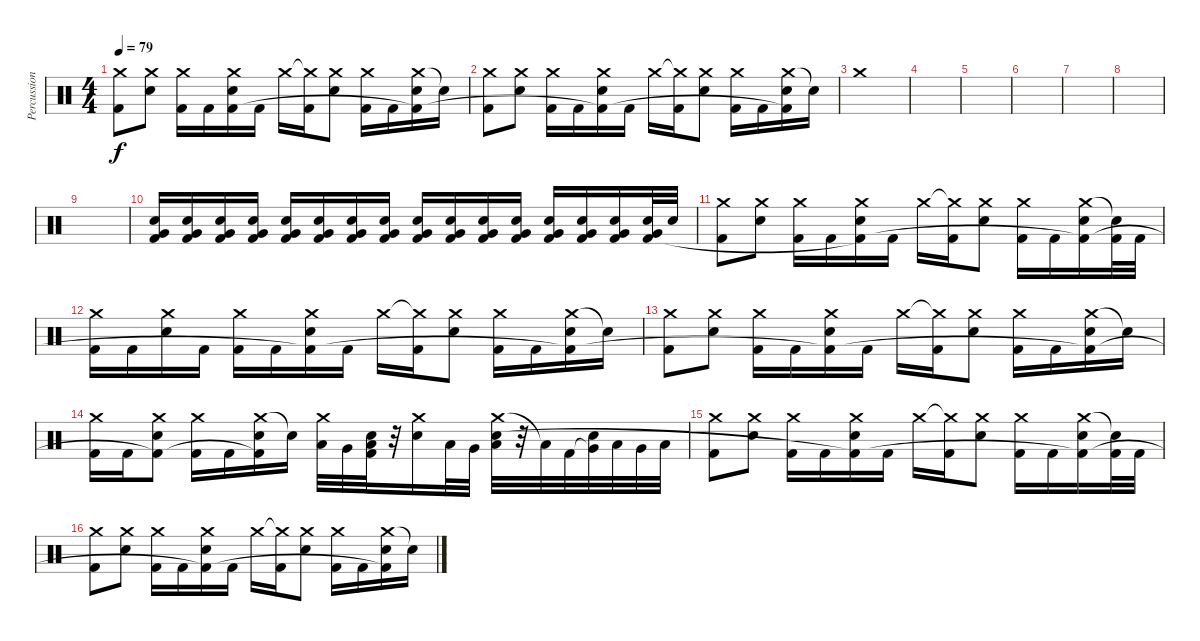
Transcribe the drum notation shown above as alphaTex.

\track ("Percussion" "Percussion") {instrument percussion}
\staff {score}
\articulation defaults
\ts (4 4)
\tempo 79
\clef neutral
\ks c
("Crash medium (hit)" "Kick (hit) 2").8{dy f} ("Crash medium (hit)" "Snare (hit) 2").8 ("Crash medium (hit)" "Kick (hit) 2").16 "Kick (hit) 2".16 ("Crash medium (hit)" "Snare (hit) 2" "Kick (hit) 2"{t}).16 "Kick (hit) 2".16 "Crash medium (hit)".16 ("Crash medium (hit)"{t} "Kick (hit) 2").16 ("Crash medium (hit)" "Snare (hit) 2").8 ("Crash medium (hit)" "Kick (hit) 2").16 "Kick (hit) 2".16 ("Crash medium (hit)" "Snare (hit) 2" "Kick (hit) 2"{t}).16 "Snare (hit)"{t}.16 |
("Crash medium (hit)" "Kick (hit) 2").8 ("Crash medium (hit)" "Snare (hit) 2").8 ("Crash medium (hit)" "Kick (hit) 2").16 "Kick (hit) 2".16 ("Crash medium (hit)" "Snare (hit) 2" "Kick (hit) 2"{t}).16 "Kick (hit) 2".16 "Crash medium (hit)".16 ("Crash medium (hit)"{t} "Kick (hit) 2").16 ("Crash medium (hit)" "Snare (hit) 2").8 ("Crash medium (hit)" "Kick (hit) 2").16 "Kick (hit) 2".16 ("Crash medium (hit)" "Snare (hit) 2" "Kick (hit) 2"{t}).16 "Snare (hit)"{t}.16 |
"Crash medium (hit)".1 |
|
|
|
|
|
|
("Very Low Tom (hit)" "Snare (hit) 2" "Kick (hit) 2").16 ("Very Low Tom (hit)" "Snare (hit) 2" "Kick (hit) 2").16 ("Very Low Tom (hit)" "Snare (hit) 2" "Kick (hit) 2").16 ("Very Low Tom (hit)" "Snare (hit) 2" "Kick (hit) 2").16 ("Very Low Tom (hit)" "Snare (hit) 2" "Kick (hit) 2").16 ("Very Low Tom (hit)" "Snare (hit) 2" "Kick (hit) 2").16 ("Very Low Tom (hit)" "Snare (hit) 2" "Kick (hit) 2").16 ("Very Low Tom (hit)" "Snare (hit) 2" "Kick (hit) 2").16 ("Very Low Tom (hit)" "Snare (hit) 2" "Kick (hit) 2").16 ("Very Low Tom (hit)" "Snare (hit) 2" "Kick (hit) 2").16 ("Very Low Tom (hit)" "Snare (hit) 2" "Kick (hit) 2").16 ("Very Low Tom (hit)" "Snare (hit) 2" "Kick (hit) 2").16 ("Very Low Tom (hit)" "Snare (hit) 2" "Kick (hit) 2").16 ("Very Low Tom (hit)" "Snare (hit) 2" "Kick (hit) 2").16 ("Very Low Tom (hit)" "Snare (hit) 2" "Kick (hit) 2").16 ("Very Low Tom (hit)" "Snare (hit) 2" "Kick (hit) 2").32 "Snare (hit) 2".32 |
("Crash medium (hit)" "Kick (hit) 2").8 ("Crash medium (hit)" "Snare (hit) 2").8 ("Crash medium (hit)" "Kick (hit) 2").16 "Kick (hit) 2".16 ("Crash medium (hit)" "Snare (hit) 2" "Kick (hit) 2"{t}).16 "Kick (hit) 2".16 "Crash medium (hit)".16 ("Crash medium (hit)"{t} "Kick (hit) 2").16 ("Crash medium (hit)" "Snare (hit) 2").8 ("Crash medium (hit)" "Kick (hit) 2").16 "Kick (hit) 2".16 ("Crash medium (hit)" "Snare (hit) 2" "Kick (hit) 2"{t}).16 ("Snare (hit)"{t} "Kick (hit) 2").32 "Kick (hit) 2".32 |
("Crash medium (hit)" "Kick (hit) 2").16 "Kick (hit) 2".16 ("Crash medium (hit)" "Snare (hit) 2").16 "Kick (hit) 2".16 ("Crash medium (hit)" "Kick (hit) 2").16 "Kick (hit) 2".16 ("Crash medium (hit)" "Snare (hit) 2" "Kick (hit) 2"{t}).16 "Kick (hit) 2".16 "Crash medium (hit)".16 ("Crash medium (hit)"{t} "Kick (hit) 2").16 ("Crash medium (hit)" "Snare (hit) 2").8 ("Crash medium (hit)" "Kick (hit) 2").16 "Kick (hit) 2".16 ("Crash medium (hit)" "Snare (hit) 2" "Kick (hit) 2"{t}).16 "Snare (hit)"{t}.16 |
("Crash medium (hit)" "Kick (hit) 2").8 ("Crash medium (hit)" "Snare (hit) 2").8 ("Crash medium (hit)" "Kick (hit) 2").16 "Kick (hit) 2".16 ("Crash medium (hit)" "Snare (hit) 2" "Kick (hit) 2"{t}).16 "Kick (hit) 2".16 "Crash medium (hit)".16 ("Crash medium (hit)"{t} "Kick (hit) 2").16 ("Crash medium (hit)" "Snare (hit) 2").8 ("Crash medium (hit)" "Kick (hit) 2").16 "Kick (hit) 2".16 ("Crash medium (hit)" "Snare (hit) 2" "Kick (hit) 2"{t}).16 "Snare (hit)"{t}.16 |
("Crash medium (hit)" "Kick (hit) 2").16 "Kick (hit) 2".16 ("Crash medium (hit)" "Snare (hit) 2" "Kick (hit) 2"{t}).8 ("Crash medium (hit)" "Kick (hit) 2").16 "Kick (hit) 2".16 ("Crash medium (hit)" "Snare (hit) 2" "Kick (hit) 2"{t}).16 "Snare (hit)"{t}.16 ("Crash medium (hit)" "Low Tom (hit)").32 "Very Low Tom (hit)".32 ("Low Floor Tom (hit)" "Snare (hit) 2" "Kick (hit) 2").32 r.32 ("Crash medium (hit)" "Snare (hit) 2").16 "Low Tom (hit)".32 "Very Low Tom (hit)".32 ("Crash medium (hit)" "Low Tom (hit)" "Snare (hit) 2").32 r.32 "Low Floor Tom (hit)"{t}.32 "Kick (hit) 2".32 ("Very Low Tom (hit)"{t} "Snare (hit) 2").32 "Low Tom (hit)".32 "Very Low Tom (hit)".32 "Low Floor Tom (hit)".32 |
("Crash medium (hit)" "Kick (hit) 2").8 ("Crash medium (hit)" "Snare (hit) 2").8 ("Crash medium (hit)" "Kick (hit) 2").16 "Kick (hit) 2".16 ("Crash medium (hit)" "Snare (hit) 2" "Kick (hit) 2"{t}).16 "Kick (hit) 2".16 "Crash medium (hit)".16 ("Crash medium (hit)"{t} "Kick (hit) 2").16 ("Crash medium (hit)" "Snare (hit) 2").8 ("Crash medium (hit)" "Kick (hit) 2").16 "Kick (hit) 2".16 ("Crash medium (hit)" "Snare (hit) 2" "Kick (hit) 2"{t}).16 ("Snare (hit)"{t} "Kick (hit) 2").32 "Kick (hit) 2".32 |
("Crash medium (hit)" "Kick (hit) 2").8 ("Crash medium (hit)" "Snare (hit) 2").8 ("Crash medium (hit)" "Kick (hit) 2").16 "Kick (hit) 2".16 ("Crash medium (hit)" "Snare (hit) 2" "Kick (hit) 2"{t}).16 "Kick (hit) 2".16 "Crash medium (hit)".16 ("Crash medium (hit)"{t} "Kick (hit) 2").16 ("Crash medium (hit)" "Snare (hit) 2").8 ("Crash medium (hit)" "Kick (hit) 2").16 "Kick (hit) 2".16 ("Crash medium (hit)" "Snare (hit) 2" "Kick (hit) 2"{t}).16 "Snare (hit)"{t}.16
